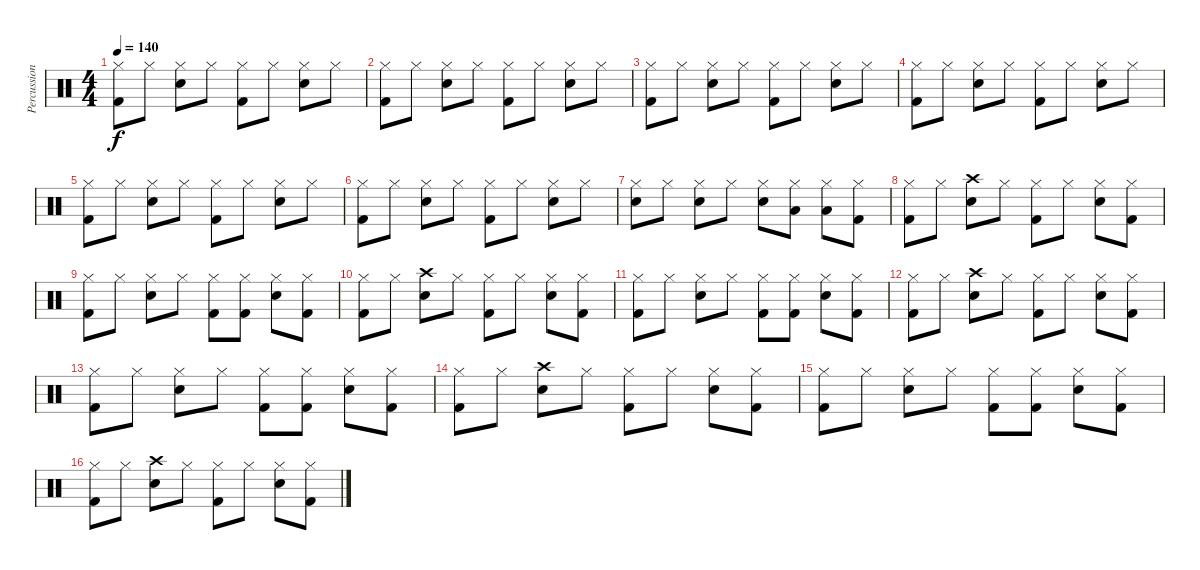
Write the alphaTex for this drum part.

\track ("Percussion" "Percussion") {instrument percussion}
\staff {score}
\articulation defaults
\ts (4 4)
\tempo 140
\clef neutral
\ks c
("Hi-Hat (closed)" "Kick (hit) 2").8{dy f} "Hi-Hat (closed)".8 ("Hi-Hat (closed)" "Snare (hit) 2").8 "Hi-Hat (closed)".8 ("Hi-Hat (closed)" "Kick (hit) 2").8 "Hi-Hat (closed)".8 ("Hi-Hat (closed)" "Snare (hit) 2").8 "Hi-Hat (closed)".8 |
("Hi-Hat (closed)" "Kick (hit) 2").8 "Hi-Hat (closed)".8 ("Hi-Hat (closed)" "Snare (hit) 2").8 "Hi-Hat (closed)".8 ("Hi-Hat (closed)" "Kick (hit) 2").8 "Hi-Hat (closed)".8 ("Hi-Hat (closed)" "Snare (hit) 2").8 "Hi-Hat (closed)".8 |
("Hi-Hat (closed)" "Kick (hit) 2").8 "Hi-Hat (closed)".8 ("Hi-Hat (closed)" "Snare (hit) 2").8 "Hi-Hat (closed)".8 ("Hi-Hat (closed)" "Kick (hit) 2").8 "Hi-Hat (closed)".8 ("Hi-Hat (closed)" "Snare (hit) 2").8 "Hi-Hat (closed)".8 |
("Hi-Hat (closed)" "Kick (hit) 2").8 "Hi-Hat (closed)".8 ("Hi-Hat (closed)" "Snare (hit) 2").8 "Hi-Hat (closed)".8 ("Hi-Hat (closed)" "Kick (hit) 2").8 "Hi-Hat (closed)".8 ("Hi-Hat (closed)" "Snare (hit) 2").8 "Hi-Hat (closed)".8 |
("Hi-Hat (closed)" "Kick (hit) 2").8 "Hi-Hat (closed)".8 ("Hi-Hat (closed)" "Snare (hit) 2").8 "Hi-Hat (closed)".8 ("Hi-Hat (closed)" "Kick (hit) 2").8 "Hi-Hat (closed)".8 ("Hi-Hat (closed)" "Snare (hit) 2").8 "Hi-Hat (closed)".8 |
("Hi-Hat (closed)" "Kick (hit) 2").8 "Hi-Hat (closed)".8 ("Hi-Hat (closed)" "Snare (hit) 2").8 "Hi-Hat (closed)".8 ("Hi-Hat (closed)" "Kick (hit) 2").8 "Hi-Hat (closed)".8 ("Hi-Hat (closed)" "Snare (hit) 2").8 "Hi-Hat (closed)".8 |
("Hi-Hat (closed)" "Snare (hit) 2").8 "Hi-Hat (closed)".8 ("Hi-Hat (closed)" "Snare (hit) 2").8 "Hi-Hat (closed)".8 ("Hi-Hat (closed)" "Snare (hit) 2").8 ("Hi-Hat (closed)" "Low Tom (hit)").8 ("Hi-Hat (closed)" "Low Tom (hit)").8 ("Hi-Hat (closed)" "Kick (hit) 2").8 |
("Hi-Hat (closed)" "Kick (hit) 2").8 "Hi-Hat (closed)".8 ("Crash high (hit)" "Snare (hit) 2").8 "Hi-Hat (closed)".8 ("Hi-Hat (closed)" "Kick (hit) 2").8 "Hi-Hat (closed)".8 ("Hi-Hat (closed)" "Snare (hit) 2").8 ("Hi-Hat (closed)" "Kick (hit) 2").8 |
("Hi-Hat (closed)" "Kick (hit) 2").8 "Hi-Hat (closed)".8 ("Hi-Hat (closed)" "Snare (hit) 2").8 "Hi-Hat (closed)".8 ("Hi-Hat (closed)" "Kick (hit) 2").8 ("Hi-Hat (closed)" "Kick (hit) 2").8 ("Hi-Hat (closed)" "Snare (hit) 2").8 ("Hi-Hat (closed)" "Kick (hit) 2").8 |
("Hi-Hat (closed)" "Kick (hit) 2").8 "Hi-Hat (closed)".8 ("Crash high (hit)" "Snare (hit) 2").8 "Hi-Hat (closed)".8 ("Hi-Hat (closed)" "Kick (hit) 2").8 "Hi-Hat (closed)".8 ("Hi-Hat (closed)" "Snare (hit) 2").8 ("Hi-Hat (closed)" "Kick (hit) 2").8 |
("Hi-Hat (closed)" "Kick (hit) 2").8 "Hi-Hat (closed)".8 ("Hi-Hat (closed)" "Snare (hit) 2").8 "Hi-Hat (closed)".8 ("Hi-Hat (closed)" "Kick (hit) 2").8 ("Hi-Hat (closed)" "Kick (hit) 2").8 ("Hi-Hat (closed)" "Snare (hit) 2").8 ("Hi-Hat (closed)" "Kick (hit) 2").8 |
("Hi-Hat (closed)" "Kick (hit) 2").8 "Hi-Hat (closed)".8 ("Crash high (hit)" "Snare (hit) 2").8 "Hi-Hat (closed)".8 ("Hi-Hat (closed)" "Kick (hit) 2").8 "Hi-Hat (closed)".8 ("Hi-Hat (closed)" "Snare (hit) 2").8 ("Hi-Hat (closed)" "Kick (hit) 2").8 |
("Hi-Hat (closed)" "Kick (hit) 2").8 "Hi-Hat (closed)".8 ("Hi-Hat (closed)" "Snare (hit) 2").8 "Hi-Hat (closed)".8 ("Hi-Hat (closed)" "Kick (hit) 2").8 ("Hi-Hat (closed)" "Kick (hit) 2").8 ("Hi-Hat (closed)" "Snare (hit) 2").8 ("Hi-Hat (closed)" "Kick (hit) 2").8 |
("Hi-Hat (closed)" "Kick (hit) 2").8 "Hi-Hat (closed)".8 ("Crash high (hit)" "Snare (hit) 2").8 "Hi-Hat (closed)".8 ("Hi-Hat (closed)" "Kick (hit) 2").8 "Hi-Hat (closed)".8 ("Hi-Hat (closed)" "Snare (hit) 2").8 ("Hi-Hat (closed)" "Kick (hit) 2").8 |
("Hi-Hat (closed)" "Kick (hit) 2").8 "Hi-Hat (closed)".8 ("Hi-Hat (closed)" "Snare (hit) 2").8 "Hi-Hat (closed)".8 ("Hi-Hat (closed)" "Kick (hit) 2").8 ("Hi-Hat (closed)" "Kick (hit) 2").8 ("Hi-Hat (closed)" "Snare (hit) 2").8 ("Hi-Hat (closed)" "Kick (hit) 2").8 |
("Hi-Hat (closed)" "Kick (hit) 2").8 "Hi-Hat (closed)".8 ("Crash high (hit)" "Snare (hit) 2").8 "Hi-Hat (closed)".8 ("Hi-Hat (closed)" "Kick (hit) 2").8 "Hi-Hat (closed)".8 ("Hi-Hat (closed)" "Snare (hit) 2").8 ("Hi-Hat (closed)" "Kick (hit) 2").8
